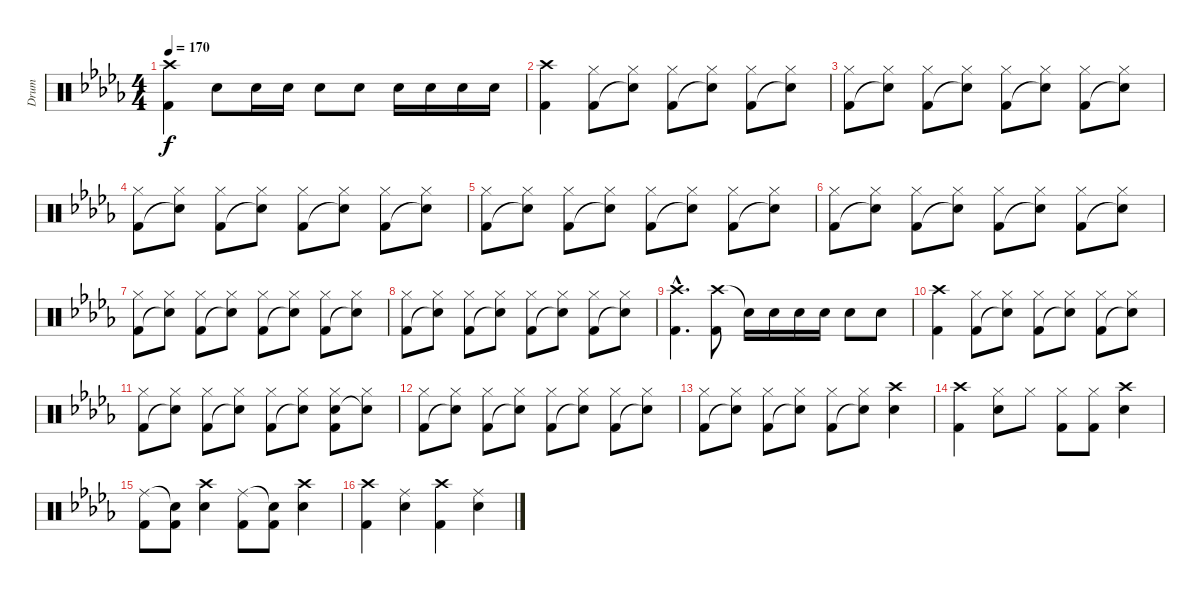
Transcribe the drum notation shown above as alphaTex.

\track ("Drum" "Drum") {instrument percussion}
\staff {score}
\articulation defaults
\ts (4 4)
\tempo 170
\clef neutral
\ks db
("Crash high (hit)" "Kick (hit) 2").4{dy f} "Electric Snare (hit)".8 "Electric Snare (hit)".16 "Electric Snare (hit)".16 "Electric Snare (hit)".8 "Electric Snare (hit)".8 "Electric Snare (hit)".16 "Electric Snare (hit)".16 "Electric Snare (hit)".16 "Electric Snare (hit)".16 |
("Crash high (hit)" "Kick (hit) 2").4 ("Hi-Hat (closed)" "Kick (hit) 2").8 ("Hi-Hat (closed)" "Snare (hit)"{t}).8 ("Hi-Hat (closed)" "Kick (hit) 2").8 ("Hi-Hat (closed)" "Snare (hit)"{t}).8 ("Hi-Hat (closed)" "Kick (hit) 2").8 ("Hi-Hat (closed)" "Snare (hit)"{t}).8 |
("Hi-Hat (closed)" "Kick (hit) 2").8 ("Hi-Hat (closed)" "Snare (hit)"{t}).8 ("Hi-Hat (closed)" "Kick (hit) 2").8 ("Hi-Hat (closed)" "Snare (hit)"{t}).8 ("Hi-Hat (closed)" "Kick (hit) 2").8 ("Hi-Hat (closed)" "Snare (hit)"{t}).8 ("Hi-Hat (closed)" "Kick (hit) 2").8 ("Hi-Hat (closed)" "Snare (hit)"{t}).8 |
("Hi-Hat (closed)" "Kick (hit) 2").8 ("Hi-Hat (closed)" "Snare (hit)"{t}).8 ("Hi-Hat (closed)" "Kick (hit) 2").8 ("Hi-Hat (closed)" "Snare (hit)"{t}).8 ("Hi-Hat (closed)" "Kick (hit) 2").8 ("Hi-Hat (closed)" "Snare (hit)"{t}).8 ("Hi-Hat (closed)" "Kick (hit) 2").8 ("Hi-Hat (closed)" "Snare (hit)"{t}).8 |
("Hi-Hat (closed)" "Kick (hit) 2").8 ("Hi-Hat (closed)" "Snare (hit)"{t}).8 ("Hi-Hat (closed)" "Kick (hit) 2").8 ("Hi-Hat (closed)" "Snare (hit)"{t}).8 ("Hi-Hat (closed)" "Kick (hit) 2").8 ("Hi-Hat (closed)" "Snare (hit)"{t}).8 ("Hi-Hat (closed)" "Kick (hit) 2").8 ("Hi-Hat (closed)" "Snare (hit)"{t}).8 |
("Hi-Hat (closed)" "Kick (hit) 2").8 ("Hi-Hat (closed)" "Snare (hit)"{t}).8 ("Hi-Hat (closed)" "Kick (hit) 2").8 ("Hi-Hat (closed)" "Snare (hit)"{t}).8 ("Hi-Hat (closed)" "Kick (hit) 2").8 ("Hi-Hat (closed)" "Snare (hit)"{t}).8 ("Hi-Hat (closed)" "Kick (hit) 2").8 ("Hi-Hat (closed)" "Snare (hit)"{t}).8 |
("Hi-Hat (closed)" "Kick (hit) 2").8 ("Hi-Hat (closed)" "Snare (hit)"{t}).8 ("Hi-Hat (closed)" "Kick (hit) 2").8 ("Hi-Hat (closed)" "Snare (hit)"{t}).8 ("Hi-Hat (closed)" "Kick (hit) 2").8 ("Hi-Hat (closed)" "Snare (hit)"{t}).8 ("Hi-Hat (closed)" "Kick (hit) 2").8 ("Hi-Hat (closed)" "Snare (hit)"{t}).8 |
("Hi-Hat (closed)" "Kick (hit) 2").8 ("Hi-Hat (closed)" "Snare (hit)"{t}).8 ("Hi-Hat (closed)" "Kick (hit) 2").8 ("Hi-Hat (closed)" "Snare (hit)"{t}).8 ("Hi-Hat (closed)" "Kick (hit) 2").8 ("Hi-Hat (closed)" "Snare (hit)"{t}).8 ("Hi-Hat (closed)" "Kick (hit) 2").8 ("Hi-Hat (closed)" "Snare (hit)"{t}).8 |
("Crash high (hit)"{hac} "Kick (hit) 2"{hac}).4{d} ("Crash high (hit)" "Kick (hit) 2").8 "Snare (hit)"{t}.16 "Electric Snare (hit)".16 "Electric Snare (hit)".16 "Electric Snare (hit)".16 "Electric Snare (hit)".8 "Electric Snare (hit)".8 |
("Crash high (hit)" "Kick (hit) 2").4 ("Hi-Hat (closed)" "Kick (hit) 2").8 ("Hi-Hat (closed)" "Snare (hit)"{t}).8 ("Hi-Hat (closed)" "Kick (hit) 2").8 ("Hi-Hat (closed)" "Snare (hit)"{t}).8 ("Hi-Hat (closed)" "Kick (hit) 2").8 ("Hi-Hat (closed)" "Snare (hit)"{t}).8 |
("Hi-Hat (closed)" "Kick (hit) 2").8 ("Hi-Hat (closed)" "Snare (hit)"{t}).8 ("Hi-Hat (closed)" "Kick (hit) 2").8 ("Hi-Hat (closed)" "Snare (hit)"{t}).8 ("Hi-Hat (closed)" "Kick (hit) 2").8 ("Hi-Hat (closed)" "Snare (hit)"{t}).8 ("Hi-Hat (closed)" "Electric Snare (hit)" "Kick (hit) 2").8 ("Hi-Hat (closed)" "Snare (hit)"{t}).8 |
("Hi-Hat (closed)" "Kick (hit) 2").8 ("Hi-Hat (closed)" "Snare (hit)"{t}).8 ("Hi-Hat (closed)" "Kick (hit) 2").8 ("Hi-Hat (closed)" "Snare (hit)"{t}).8 ("Hi-Hat (closed)" "Kick (hit) 2").8 ("Hi-Hat (closed)" "Snare (hit)"{t}).8 ("Hi-Hat (closed)" "Kick (hit) 2").8 ("Hi-Hat (closed)" "Snare (hit)"{t}).8 |
("Hi-Hat (closed)" "Kick (hit) 2").8 ("Hi-Hat (closed)" "Snare (hit)"{t}).8 ("Hi-Hat (closed)" "Kick (hit) 2").8 ("Hi-Hat (closed)" "Snare (hit)"{t}).8 ("Hi-Hat (closed)" "Kick (hit) 2").8 ("Hi-Hat (closed)" "Snare (hit)"{t}).8 ("Crash high (hit)" "Electric Snare (hit)").4 |
("Crash high (hit)" "Kick (hit) 2").4 ("Hi-Hat (closed)" "Electric Snare (hit)").8 "Hi-Hat (closed)".8 ("Hi-Hat (closed)" "Kick (hit) 2").8 ("Hi-Hat (closed)" "Kick (hit) 2").8 ("Crash high (hit)" "Electric Snare (hit)").4 |
("Ride (middle)" "Kick (hit) 2").8 ("Snare (hit)"{t} "Kick (hit) 2").8 ("Crash high (hit)" "Electric Snare (hit)").4 ("Ride (middle)" "Kick (hit) 2").8 ("Snare (hit)"{t} "Kick (hit) 2").8 ("Crash high (hit)" "Electric Snare (hit)").4 |
("Crash high (hit)" "Kick (hit) 2").4 ("Ride (middle)" "Electric Snare (hit)").4 ("Crash high (hit)" "Kick (hit) 2").4 ("Ride (middle)" "Electric Snare (hit)").4
